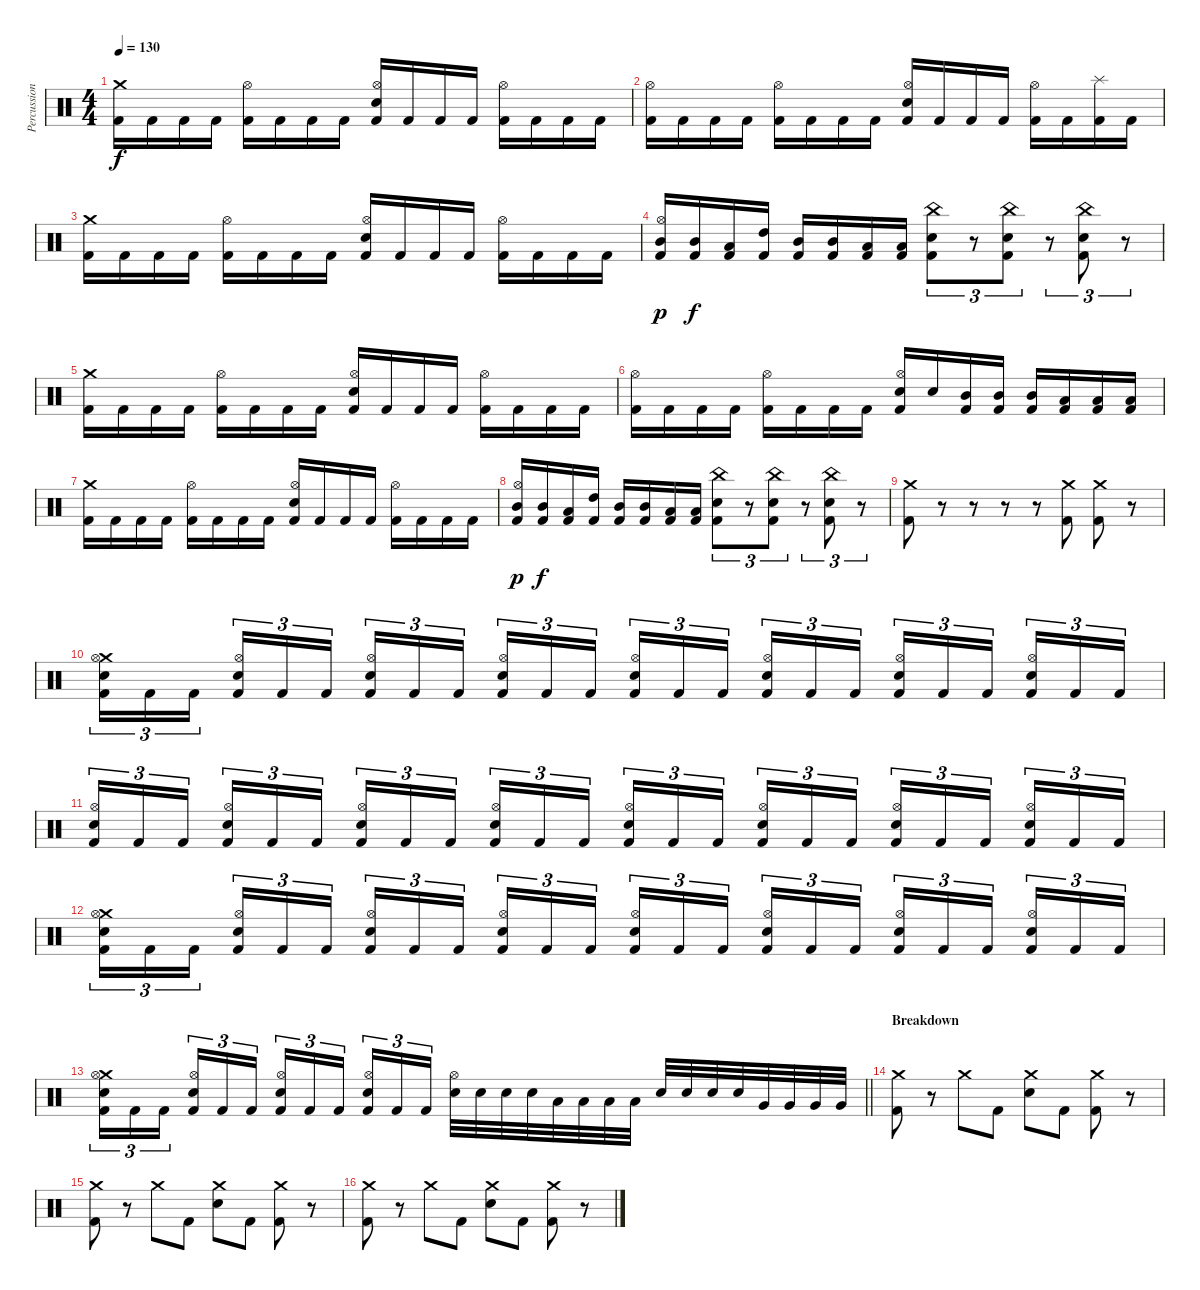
\track ("Percussion" "Percussion") {instrument percussion}
\staff {score}
\articulation defaults
\ts (4 4)
\tempo 130
\clef neutral
\ks c
("Crash medium (hit)" "Kick (hit) 2").16{dy f} "Kick (hit) 2".16 "Kick (hit) 2".16 "Kick (hit) 2".16 ("Hi-Hat (open)" "Kick (hit) 2").16 "Kick (hit) 2".16 "Kick (hit) 2".16 "Kick (hit) 2".16 ("Hi-Hat (open)" "Electric Snare (hit)" "Kick (hit) 2").16 "Kick (hit) 2".16 "Kick (hit) 2".16 "Kick (hit) 2".16 ("Hi-Hat (open)" "Kick (hit) 2").16 "Kick (hit) 2".16 "Kick (hit) 2".16 "Kick (hit) 2".16 |
("Hi-Hat (open)" "Kick (hit) 2").16 "Kick (hit) 2".16 "Kick (hit) 2".16 "Kick (hit) 2".16 ("Hi-Hat (open)" "Kick (hit) 2").16 "Kick (hit) 2".16 "Kick (hit) 2".16 "Kick (hit) 2".16 ("Hi-Hat (open)" "Electric Snare (hit)" "Kick (hit) 2").16 "Kick (hit) 2".16 "Kick (hit) 2".16 "Kick (hit) 2".16 ("Hi-Hat (open)" "Kick (hit) 2").16 "Kick (hit) 2".16 ("Splash (hit)" "Kick (hit) 2").16 "Kick (hit) 2".16 |
("Crash medium (hit)" "Kick (hit) 2").16 "Kick (hit) 2".16 "Kick (hit) 2".16 "Kick (hit) 2".16 ("Hi-Hat (open)" "Kick (hit) 2").16 "Kick (hit) 2".16 "Kick (hit) 2".16 "Kick (hit) 2".16 ("Hi-Hat (open)" "Electric Snare (hit)" "Kick (hit) 2").16 "Kick (hit) 2".16 "Kick (hit) 2".16 "Kick (hit) 2".16 ("Hi-Hat (open)" "Kick (hit) 2").16 "Kick (hit) 2".16 "Kick (hit) 2".16 "Kick (hit) 2".16 |
("Hi-Hat (open)" "Mid Tom (hit)" "Kick (hit) 2").16{dy p} ("Mid Tom (hit)" "Kick (hit) 2").16{dy f} ("Low Tom (hit)" "Kick (hit) 2").16 ("High Tom (hit)" "Kick (hit) 2").16 ("Mid Tom (hit)" "Kick (hit) 2").16 ("Mid Tom (hit)" "Kick (hit) 2").16 ("Low Tom (hit)" "Kick (hit) 2").16 ("Low Tom (hit)" "Kick (hit) 2").16 ("China (hit)" "Electric Snare (hit)" "Kick (hit) 2").8{tu (3 2)} r.8{tu (3 2)} ("China (hit)" "Electric Snare (hit)" "Kick (hit) 2").8{tu (3 2)} r.8{tu (3 2)} ("China (hit)" "Electric Snare (hit)" "Kick (hit) 2").8{tu (3 2)} r.8{tu (3 2)} |
("Crash medium (hit)" "Kick (hit) 2").16 "Kick (hit) 2".16 "Kick (hit) 2".16 "Kick (hit) 2".16 ("Hi-Hat (open)" "Kick (hit) 2").16 "Kick (hit) 2".16 "Kick (hit) 2".16 "Kick (hit) 2".16 ("Hi-Hat (open)" "Electric Snare (hit)" "Kick (hit) 2").16 "Kick (hit) 2".16 "Kick (hit) 2".16 "Kick (hit) 2".16 ("Hi-Hat (open)" "Kick (hit) 2").16 "Kick (hit) 2".16 "Kick (hit) 2".16 "Kick (hit) 2".16 |
("Hi-Hat (open)" "Kick (hit) 2").16 "Kick (hit) 2".16 "Kick (hit) 2".16 "Kick (hit) 2".16 ("Hi-Hat (open)" "Kick (hit) 2").16 "Kick (hit) 2".16 "Kick (hit) 2".16 "Kick (hit) 2".16 ("Hi-Hat (open)" "Electric Snare (hit)" "Kick (hit) 2").16 "Electric Snare (hit)".16 ("Mid Tom (hit)" "Kick (hit) 2").16 ("Mid Tom (hit)" "Kick (hit) 2").16 ("Mid Tom (hit)" "Kick (hit) 2").16 ("Low Tom (hit)" "Kick (hit) 2").16 ("Low Tom (hit)" "Kick (hit) 2").16 ("Low Tom (hit)" "Kick (hit) 2").16 |
("Crash medium (hit)" "Kick (hit) 2").16 "Kick (hit) 2".16 "Kick (hit) 2".16 "Kick (hit) 2".16 ("Hi-Hat (open)" "Kick (hit) 2").16 "Kick (hit) 2".16 "Kick (hit) 2".16 "Kick (hit) 2".16 ("Hi-Hat (open)" "Electric Snare (hit)" "Kick (hit) 2").16 "Kick (hit) 2".16 "Kick (hit) 2".16 "Kick (hit) 2".16 ("Hi-Hat (open)" "Kick (hit) 2").16 "Kick (hit) 2".16 "Kick (hit) 2".16 "Kick (hit) 2".16 |
("Hi-Hat (open)" "Mid Tom (hit)" "Kick (hit) 2").16{dy p} ("Mid Tom (hit)" "Kick (hit) 2").16{dy f} ("Low Tom (hit)" "Kick (hit) 2").16 ("High Tom (hit)" "Kick (hit) 2").16 ("Mid Tom (hit)" "Kick (hit) 2").16 ("Mid Tom (hit)" "Kick (hit) 2").16 ("Low Tom (hit)" "Kick (hit) 2").16 ("Low Tom (hit)" "Kick (hit) 2").16 ("China (hit)" "Electric Snare (hit)" "Kick (hit) 2").8{tu (3 2)} r.8{tu (3 2)} ("China (hit)" "Electric Snare (hit)" "Kick (hit) 2").8{tu (3 2)} r.8{tu (3 2)} ("China (hit)" "Electric Snare (hit)" "Kick (hit) 2").8{tu (3 2)} r.8{tu (3 2)} |
("Crash medium (hit)" "Kick (hit) 2").8 r.8 r.8 r.8 r.8 ("Crash medium (hit)" "Kick (hit) 2").8 ("Crash medium (hit)" "Kick (hit) 2").8 r.8 |
("Crash medium (hit)" "Hi-Hat (open)" "Electric Snare (hit)" "Kick (hit) 2").16{tu (3 2)} "Kick (hit) 2".16{tu (3 2)} "Kick (hit) 2".16{tu (3 2)} ("Hi-Hat (open)" "Electric Snare (hit)" "Kick (hit) 2").16{tu (3 2)} "Kick (hit) 2".16{tu (3 2)} "Kick (hit) 2".16{tu (3 2)} ("Hi-Hat (open)" "Electric Snare (hit)" "Kick (hit) 2").16{tu (3 2)} "Kick (hit) 2".16{tu (3 2)} "Kick (hit) 2".16{tu (3 2)} ("Hi-Hat (open)" "Electric Snare (hit)" "Kick (hit) 2").16{tu (3 2)} "Kick (hit) 2".16{tu (3 2)} "Kick (hit) 2".16{tu (3 2)} ("Hi-Hat (open)" "Electric Snare (hit)" "Kick (hit) 2").16{tu (3 2)} "Kick (hit) 2".16{tu (3 2)} "Kick (hit) 2".16{tu (3 2)} ("Hi-Hat (open)" "Electric Snare (hit)" "Kick (hit) 2").16{tu (3 2)} "Kick (hit) 2".16{tu (3 2)} "Kick (hit) 2".16{tu (3 2)} ("Hi-Hat (open)" "Electric Snare (hit)" "Kick (hit) 2").16{tu (3 2)} "Kick (hit) 2".16{tu (3 2)} "Kick (hit) 2".16{tu (3 2)} ("Hi-Hat (open)" "Electric Snare (hit)" "Kick (hit) 2").16{tu (3 2)} "Kick (hit) 2".16{tu (3 2)} "Kick (hit) 2".16{tu (3 2)} |
("Hi-Hat (open)" "Electric Snare (hit)" "Kick (hit) 2").16{tu (3 2)} "Kick (hit) 2".16{tu (3 2)} "Kick (hit) 2".16{tu (3 2)} ("Hi-Hat (open)" "Electric Snare (hit)" "Kick (hit) 2").16{tu (3 2)} "Kick (hit) 2".16{tu (3 2)} "Kick (hit) 2".16{tu (3 2)} ("Hi-Hat (open)" "Electric Snare (hit)" "Kick (hit) 2").16{tu (3 2)} "Kick (hit) 2".16{tu (3 2)} "Kick (hit) 2".16{tu (3 2)} ("Hi-Hat (open)" "Electric Snare (hit)" "Kick (hit) 2").16{tu (3 2)} "Kick (hit) 2".16{tu (3 2)} "Kick (hit) 2".16{tu (3 2)} ("Hi-Hat (open)" "Electric Snare (hit)" "Kick (hit) 2").16{tu (3 2)} "Kick (hit) 2".16{tu (3 2)} "Kick (hit) 2".16{tu (3 2)} ("Hi-Hat (open)" "Electric Snare (hit)" "Kick (hit) 2").16{tu (3 2)} "Kick (hit) 2".16{tu (3 2)} "Kick (hit) 2".16{tu (3 2)} ("Hi-Hat (open)" "Electric Snare (hit)" "Kick (hit) 2").16{tu (3 2)} "Kick (hit) 2".16{tu (3 2)} "Kick (hit) 2".16{tu (3 2)} ("Hi-Hat (open)" "Electric Snare (hit)" "Kick (hit) 2").16{tu (3 2)} "Kick (hit) 2".16{tu (3 2)} "Kick (hit) 2".16{tu (3 2)} |
("Crash medium (hit)" "Hi-Hat (open)" "Electric Snare (hit)" "Kick (hit) 2").16{tu (3 2)} "Kick (hit) 2".16{tu (3 2)} "Kick (hit) 2".16{tu (3 2)} ("Hi-Hat (open)" "Electric Snare (hit)" "Kick (hit) 2").16{tu (3 2)} "Kick (hit) 2".16{tu (3 2)} "Kick (hit) 2".16{tu (3 2)} ("Hi-Hat (open)" "Electric Snare (hit)" "Kick (hit) 2").16{tu (3 2)} "Kick (hit) 2".16{tu (3 2)} "Kick (hit) 2".16{tu (3 2)} ("Hi-Hat (open)" "Electric Snare (hit)" "Kick (hit) 2").16{tu (3 2)} "Kick (hit) 2".16{tu (3 2)} "Kick (hit) 2".16{tu (3 2)} ("Hi-Hat (open)" "Electric Snare (hit)" "Kick (hit) 2").16{tu (3 2)} "Kick (hit) 2".16{tu (3 2)} "Kick (hit) 2".16{tu (3 2)} ("Hi-Hat (open)" "Electric Snare (hit)" "Kick (hit) 2").16{tu (3 2)} "Kick (hit) 2".16{tu (3 2)} "Kick (hit) 2".16{tu (3 2)} ("Hi-Hat (open)" "Electric Snare (hit)" "Kick (hit) 2").16{tu (3 2)} "Kick (hit) 2".16{tu (3 2)} "Kick (hit) 2".16{tu (3 2)} ("Hi-Hat (open)" "Electric Snare (hit)" "Kick (hit) 2").16{tu (3 2)} "Kick (hit) 2".16{tu (3 2)} "Kick (hit) 2".16{tu (3 2)} |
\barLineRight lightlight
("Crash medium (hit)" "Hi-Hat (open)" "Electric Snare (hit)" "Kick (hit) 2").16{tu (3 2)} "Kick (hit) 2".16{tu (3 2)} "Kick (hit) 2".16{tu (3 2)} ("Hi-Hat (open)" "Electric Snare (hit)" "Kick (hit) 2").16{tu (3 2)} "Kick (hit) 2".16{tu (3 2)} "Kick (hit) 2".16{tu (3 2)} ("Hi-Hat (open)" "Electric Snare (hit)" "Kick (hit) 2").16{tu (3 2)} "Kick (hit) 2".16{tu (3 2)} "Kick (hit) 2".16{tu (3 2)} ("Hi-Hat (open)" "Electric Snare (hit)" "Kick (hit) 2").16{tu (3 2)} "Kick (hit) 2".16{tu (3 2)} "Kick (hit) 2".16{tu (3 2)} ("Hi-Hat (open)" "Electric Snare (hit)").32 "Electric Snare (hit)".32 "Electric Snare (hit)".32 "Electric Snare (hit)".32 "Low Tom (hit)".32 "Low Tom (hit)".32 "Low Tom (hit)".32 "Low Tom (hit)".32 "Electric Snare (hit)".32 "Electric Snare (hit)".32 "Electric Snare (hit)".32 "Electric Snare (hit)".32 "Very Low Tom (hit)".32 "Very Low Tom (hit)".32 "Very Low Tom (hit)".32 "Very Low Tom (hit)".32 |
\section ("" "Breakdown")
("Crash medium (hit)" "Kick (hit) 2").8 r.8 "Crash medium (hit)".8 "Kick (hit) 2".8 ("Crash medium (hit)" "Electric Snare (hit)").8 "Kick (hit) 2".8 ("Crash medium (hit)" "Kick (hit) 2").8 r.8 |
("Crash medium (hit)" "Kick (hit) 2").8 r.8 "Crash medium (hit)".8 "Kick (hit) 2".8 ("Crash medium (hit)" "Electric Snare (hit)").8 "Kick (hit) 2".8 ("Crash medium (hit)" "Kick (hit) 2").8 r.8 |
("Crash medium (hit)" "Kick (hit) 2").8 r.8 "Crash medium (hit)".8 "Kick (hit) 2".8 ("Crash medium (hit)" "Electric Snare (hit)").8 "Kick (hit) 2".8 ("Crash medium (hit)" "Kick (hit) 2").8 r.8
